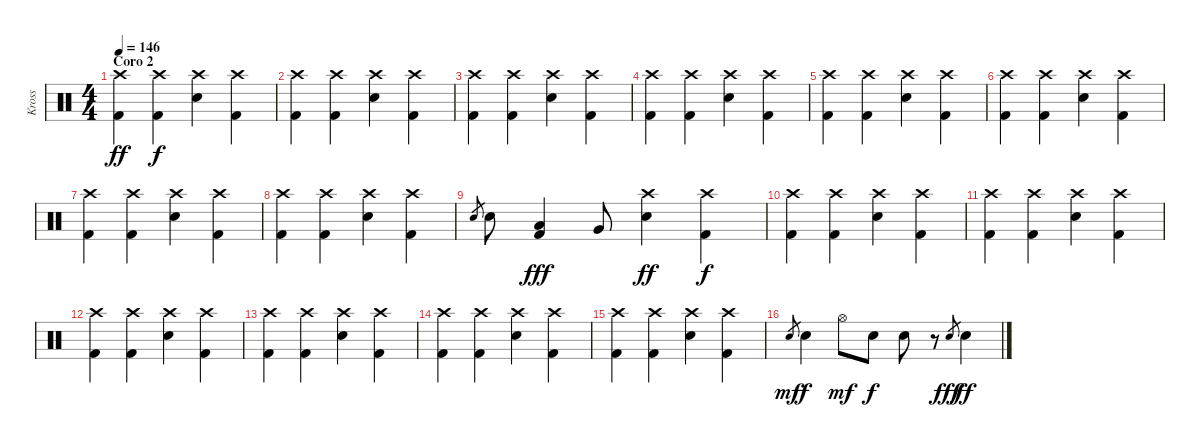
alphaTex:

\track ("Kross" "Kross") {instrument percussion}
\staff {score}
\articulation defaults
\ts (4 4)
\section ("" "Coro 2")
\tempo 146
\clef neutral
\ks c
("Crash high (hit)" "Kick (hit) 2").4{dy ff} ("Crash high (hit)" "Kick (hit) 2").4{dy f} ("Crash high (hit)" "Snare (hit) 2").4 ("Crash high (hit)" "Kick (hit) 2").4 |
("Crash high (hit)" "Kick (hit) 2").4 ("Crash high (hit)" "Kick (hit) 2").4 ("Crash high (hit)" "Snare (hit) 2").4 ("Crash high (hit)" "Kick (hit) 2").4 |
("Crash high (hit)" "Kick (hit) 2").4 ("Crash high (hit)" "Kick (hit) 2").4 ("Crash high (hit)" "Snare (hit) 2").4 ("Crash high (hit)" "Kick (hit) 2").4 |
("Crash high (hit)" "Kick (hit) 2").4 ("Crash high (hit)" "Kick (hit) 2").4 ("Crash high (hit)" "Snare (hit) 2").4 ("Crash high (hit)" "Kick (hit) 2").4 |
("Crash high (hit)" "Kick (hit) 2").4 ("Crash high (hit)" "Kick (hit) 2").4 ("Crash high (hit)" "Snare (hit) 2").4 ("Crash high (hit)" "Kick (hit) 2").4 |
("Crash high (hit)" "Kick (hit) 2").4 ("Crash high (hit)" "Kick (hit) 2").4 ("Crash high (hit)" "Snare (hit) 2").4 ("Crash high (hit)" "Kick (hit) 2").4 |
("Crash high (hit)" "Kick (hit) 2").4 ("Crash high (hit)" "Kick (hit) 2").4 ("Crash high (hit)" "Snare (hit) 2").4 ("Crash high (hit)" "Kick (hit) 2").4 |
("Crash high (hit)" "Kick (hit) 2").4 ("Crash high (hit)" "Kick (hit) 2").4 ("Crash high (hit)" "Snare (hit) 2").4 ("Crash high (hit)" "Kick (hit) 2").4 |
"Snare (hit) 2".8{gr} "Snare (hit) 2".8 ("Low Tom (hit)" "Kick (hit) 2").4{dy fff} "Very Low Tom (hit)".8 ("Crash high (hit)" "Snare (hit) 2").4{dy ff} ("Crash high (hit)" "Kick (hit) 2").4{dy f} |
("Crash high (hit)" "Kick (hit) 2").4 ("Crash high (hit)" "Kick (hit) 2").4 ("Crash high (hit)" "Snare (hit) 2").4 ("Crash high (hit)" "Kick (hit) 2").4 |
("Crash high (hit)" "Kick (hit) 2").4 ("Crash high (hit)" "Kick (hit) 2").4 ("Crash high (hit)" "Snare (hit) 2").4 ("Crash high (hit)" "Kick (hit) 2").4 |
("Crash high (hit)" "Kick (hit) 2").4 ("Crash high (hit)" "Kick (hit) 2").4 ("Crash high (hit)" "Snare (hit) 2").4 ("Crash high (hit)" "Kick (hit) 2").4 |
("Crash high (hit)" "Kick (hit) 2").4 ("Crash high (hit)" "Kick (hit) 2").4 ("Crash high (hit)" "Snare (hit) 2").4 ("Crash high (hit)" "Kick (hit) 2").4 |
("Crash high (hit)" "Kick (hit) 2").4 ("Crash high (hit)" "Kick (hit) 2").4 ("Crash high (hit)" "Snare (hit) 2").4 ("Crash high (hit)" "Kick (hit) 2").4 |
("Crash high (hit)" "Kick (hit) 2").4 ("Crash high (hit)" "Kick (hit) 2").4 ("Crash high (hit)" "Snare (hit) 2").4 ("Crash high (hit)" "Kick (hit) 2").4 |
"Snare (hit) 2".8{gr dy mf} "Snare (hit) 2".4{dy f} "Hi-Hat (open)".8{dy mf} "Snare (hit) 2".8{dy f} "Snare (hit) 2".8 r.8 "Snare (hit) 2".8{gr dy fff} "Snare (hit) 2".4{dy ff}
